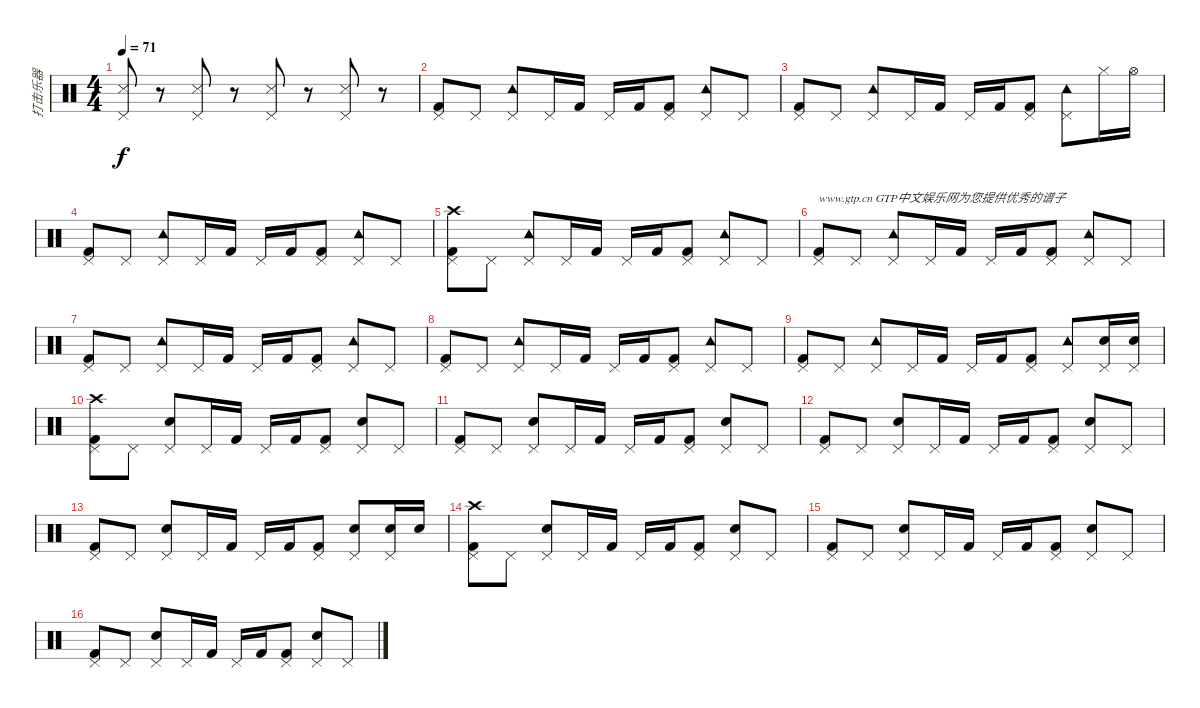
\track ("打击乐器" "打击乐器") {instrument percussion}
\staff {score}
\articulation defaults
\ts (4 4)
\tempo 71
\clef neutral
\ks c
("Pedal Hi-Hat (hit)" "Metronome (hit)").8{dy f} r.8 ("Pedal Hi-Hat (hit)" "Metronome (hit)").8 r.8 ("Pedal Hi-Hat (hit)" "Metronome (hit)").8 r.8 ("Pedal Hi-Hat (hit)" "Metronome (hit)").8 r.8 |
("Pedal Hi-Hat (hit)" "Kick (hit) 2").8 "Pedal Hi-Hat (hit)".8 ("Pedal Hi-Hat (hit)" "Tambourine (hit)").8 "Pedal Hi-Hat (hit)".16 "Kick (hit) 2".16 "Pedal Hi-Hat (hit)".16 "Kick (hit) 2".16 ("Pedal Hi-Hat (hit)" "Kick (hit) 2").8 ("Pedal Hi-Hat (hit)" "Tambourine (hit)").8 "Pedal Hi-Hat (hit)".8 |
("Pedal Hi-Hat (hit)" "Kick (hit) 2").8 "Pedal Hi-Hat (hit)".8 ("Pedal Hi-Hat (hit)" "Tambourine (hit)").8 "Pedal Hi-Hat (hit)".16 "Kick (hit) 2".16 "Pedal Hi-Hat (hit)".16 "Kick (hit) 2".16 ("Pedal Hi-Hat (hit)" "Kick (hit) 2").8 ("Pedal Hi-Hat (hit)" "Tambourine (hit)").8 "Hi-Hat (closed)".16 "Hi-Hat (open)".16 |
("Pedal Hi-Hat (hit)" "Kick (hit) 2").8 "Pedal Hi-Hat (hit)".8 ("Pedal Hi-Hat (hit)" "Tambourine (hit)").8 "Pedal Hi-Hat (hit)".16 "Kick (hit) 2".16 "Pedal Hi-Hat (hit)".16 "Kick (hit) 2".16 ("Pedal Hi-Hat (hit)" "Kick (hit) 2").8 ("Pedal Hi-Hat (hit)" "Tambourine (hit)").8 "Pedal Hi-Hat (hit)".8 |
("Pedal Hi-Hat (hit)" "Kick (hit) 2" "Crash high (hit)").8 "Pedal Hi-Hat (hit)".8 ("Pedal Hi-Hat (hit)" "Tambourine (hit)").8 "Pedal Hi-Hat (hit)".16 "Kick (hit) 2".16 "Pedal Hi-Hat (hit)".16 "Kick (hit) 2".16 ("Pedal Hi-Hat (hit)" "Kick (hit) 2").8 ("Pedal Hi-Hat (hit)" "Tambourine (hit)").8 "Pedal Hi-Hat (hit)".8 |
("Pedal Hi-Hat (hit)" "Kick (hit) 2").8{txt "www.gtp.cn GTP中文娱乐网为您提供优秀的谱子"} "Pedal Hi-Hat (hit)".8 ("Pedal Hi-Hat (hit)" "Tambourine (hit)").8 "Pedal Hi-Hat (hit)".16 "Kick (hit) 2".16 "Pedal Hi-Hat (hit)".16 "Kick (hit) 2".16 ("Pedal Hi-Hat (hit)" "Kick (hit) 2").8 ("Pedal Hi-Hat (hit)" "Tambourine (hit)").8 "Pedal Hi-Hat (hit)".8 |
("Pedal Hi-Hat (hit)" "Kick (hit) 2").8 "Pedal Hi-Hat (hit)".8 ("Pedal Hi-Hat (hit)" "Tambourine (hit)").8 "Pedal Hi-Hat (hit)".16 "Kick (hit) 2".16 "Pedal Hi-Hat (hit)".16 "Kick (hit) 2".16 ("Pedal Hi-Hat (hit)" "Kick (hit) 2").8 ("Pedal Hi-Hat (hit)" "Tambourine (hit)").8 "Pedal Hi-Hat (hit)".8 |
("Pedal Hi-Hat (hit)" "Kick (hit) 2").8 "Pedal Hi-Hat (hit)".8 ("Pedal Hi-Hat (hit)" "Tambourine (hit)").8 "Pedal Hi-Hat (hit)".16 "Kick (hit) 2".16 "Pedal Hi-Hat (hit)".16 "Kick (hit) 2".16 ("Pedal Hi-Hat (hit)" "Kick (hit) 2").8 ("Pedal Hi-Hat (hit)" "Tambourine (hit)").8 "Pedal Hi-Hat (hit)".8 |
("Pedal Hi-Hat (hit)" "Kick (hit) 2").8 "Pedal Hi-Hat (hit)".8 ("Pedal Hi-Hat (hit)" "Tambourine (hit)").8 "Pedal Hi-Hat (hit)".16 "Kick (hit) 2".16 "Pedal Hi-Hat (hit)".16 "Kick (hit) 2".16 ("Pedal Hi-Hat (hit)" "Kick (hit) 2").8 ("Pedal Hi-Hat (hit)" "Tambourine (hit)").8 ("Pedal Hi-Hat (hit)" "Electric Snare (hit)").16 ("Pedal Hi-Hat (hit)" "Electric Snare (hit)").16 |
("Pedal Hi-Hat (hit)" "Kick (hit) 2" "Crash high (hit)").8 "Pedal Hi-Hat (hit)".8 ("Pedal Hi-Hat (hit)" "Electric Snare (hit)").8 "Pedal Hi-Hat (hit)".16 "Kick (hit) 2".16 "Pedal Hi-Hat (hit)".16 "Kick (hit) 2".16 ("Pedal Hi-Hat (hit)" "Kick (hit) 2").8 ("Pedal Hi-Hat (hit)" "Electric Snare (hit)").8 "Pedal Hi-Hat (hit)".8 |
("Pedal Hi-Hat (hit)" "Kick (hit) 2").8 "Pedal Hi-Hat (hit)".8 ("Pedal Hi-Hat (hit)" "Electric Snare (hit)").8 "Pedal Hi-Hat (hit)".16 "Kick (hit) 2".16 "Pedal Hi-Hat (hit)".16 "Kick (hit) 2".16 ("Pedal Hi-Hat (hit)" "Kick (hit) 2").8 ("Pedal Hi-Hat (hit)" "Electric Snare (hit)").8 "Pedal Hi-Hat (hit)".8 |
("Pedal Hi-Hat (hit)" "Kick (hit) 2").8 "Pedal Hi-Hat (hit)".8 ("Pedal Hi-Hat (hit)" "Electric Snare (hit)").8 "Pedal Hi-Hat (hit)".16 "Kick (hit) 2".16 "Pedal Hi-Hat (hit)".16 "Kick (hit) 2".16 ("Pedal Hi-Hat (hit)" "Kick (hit) 2").8 ("Pedal Hi-Hat (hit)" "Electric Snare (hit)").8 "Pedal Hi-Hat (hit)".8 |
("Pedal Hi-Hat (hit)" "Kick (hit) 2").8 "Pedal Hi-Hat (hit)".8 ("Pedal Hi-Hat (hit)" "Electric Snare (hit)").8 "Pedal Hi-Hat (hit)".16 "Kick (hit) 2".16 "Pedal Hi-Hat (hit)".16 "Kick (hit) 2".16 ("Pedal Hi-Hat (hit)" "Kick (hit) 2").8 ("Pedal Hi-Hat (hit)" "Electric Snare (hit)").8 ("Electric Snare (hit)" "Pedal Hi-Hat (hit)").16 "Electric Snare (hit)".16 |
("Pedal Hi-Hat (hit)" "Kick (hit) 2" "Crash high (hit)").8 "Pedal Hi-Hat (hit)".8 ("Pedal Hi-Hat (hit)" "Electric Snare (hit)").8 "Pedal Hi-Hat (hit)".16 "Kick (hit) 2".16 "Pedal Hi-Hat (hit)".16 "Kick (hit) 2".16 ("Pedal Hi-Hat (hit)" "Kick (hit) 2").8 ("Pedal Hi-Hat (hit)" "Electric Snare (hit)").8 "Pedal Hi-Hat (hit)".8 |
("Pedal Hi-Hat (hit)" "Kick (hit) 2").8 "Pedal Hi-Hat (hit)".8 ("Pedal Hi-Hat (hit)" "Electric Snare (hit)").8 "Pedal Hi-Hat (hit)".16 "Kick (hit) 2".16 "Pedal Hi-Hat (hit)".16 "Kick (hit) 2".16 ("Pedal Hi-Hat (hit)" "Kick (hit) 2").8 ("Pedal Hi-Hat (hit)" "Electric Snare (hit)").8 "Pedal Hi-Hat (hit)".8 |
("Pedal Hi-Hat (hit)" "Kick (hit) 2").8 "Pedal Hi-Hat (hit)".8 ("Pedal Hi-Hat (hit)" "Electric Snare (hit)").8 "Pedal Hi-Hat (hit)".16 "Kick (hit) 2".16 "Pedal Hi-Hat (hit)".16 "Kick (hit) 2".16 ("Pedal Hi-Hat (hit)" "Kick (hit) 2").8 ("Pedal Hi-Hat (hit)" "Electric Snare (hit)").8 "Pedal Hi-Hat (hit)".8
